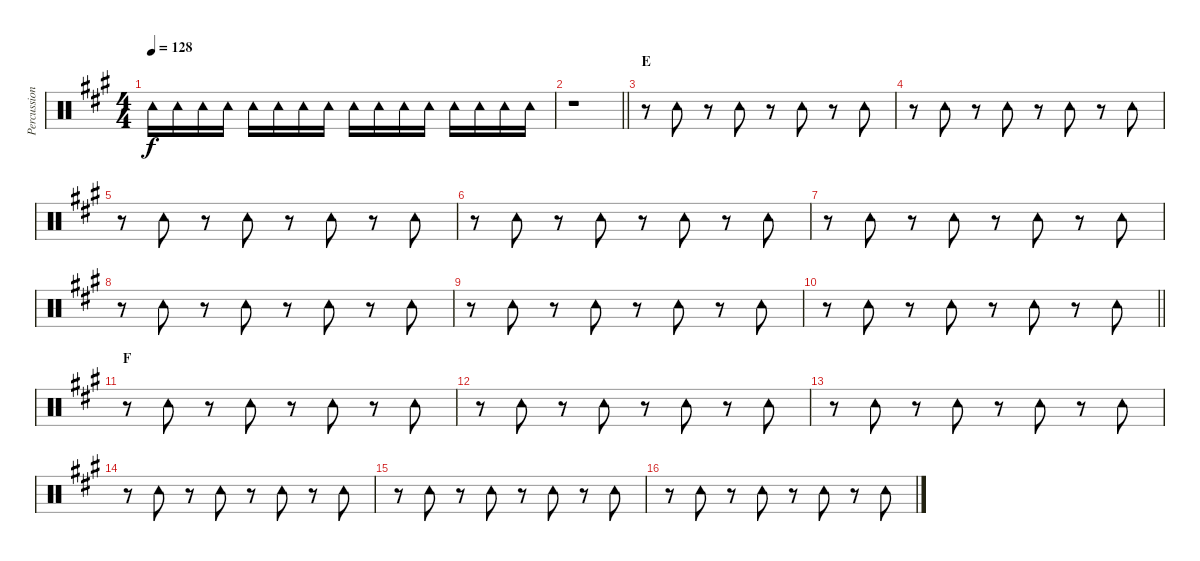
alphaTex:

\track ("Percussion" "Percussion") {instrument percussion}
\staff {score}
\articulation defaults
\ts (4 4)
\tempo 128
\clef neutral
\ks a "Tambourine (hit)".16{dy f} "Tambourine (hit)".16 "Tambourine (hit)".16 "Tambourine (hit)".16 "Tambourine (hit)".16 "Tambourine (hit)".16 "Tambourine (hit)".16 "Tambourine (hit)".16 "Tambourine (hit)".16 "Tambourine (hit)".16 "Tambourine (hit)".16 "Tambourine (hit)".16 "Tambourine (hit)".16 "Tambourine (hit)".16 "Tambourine (hit)".16 "Tambourine (hit)".16
|
\barLineRight lightlight
r.1 |
\section ("" "E")
r.8 "Tambourine (hit)".8 r.8 "Tambourine (hit)".8 r.8 "Tambourine (hit)".8 r.8 "Tambourine (hit)".8 |
r.8 "Tambourine (hit)".8 r.8 "Tambourine (hit)".8 r.8 "Tambourine (hit)".8 r.8 "Tambourine (hit)".8 |
r.8 "Tambourine (hit)".8 r.8 "Tambourine (hit)".8 r.8 "Tambourine (hit)".8 r.8 "Tambourine (hit)".8 |
r.8 "Tambourine (hit)".8 r.8 "Tambourine (hit)".8 r.8 "Tambourine (hit)".8 r.8 "Tambourine (hit)".8 |
r.8 "Tambourine (hit)".8 r.8 "Tambourine (hit)".8 r.8 "Tambourine (hit)".8 r.8 "Tambourine (hit)".8 |
r.8 "Tambourine (hit)".8 r.8 "Tambourine (hit)".8 r.8 "Tambourine (hit)".8 r.8 "Tambourine (hit)".8 |
r.8 "Tambourine (hit)".8 r.8 "Tambourine (hit)".8 r.8 "Tambourine (hit)".8 r.8 "Tambourine (hit)".8 |
\barLineRight lightlight
r.8 "Tambourine (hit)".8 r.8 "Tambourine (hit)".8 r.8 "Tambourine (hit)".8 r.8 "Tambourine (hit)".8 |
\section ("" "F")
r.8 "Tambourine (hit)".8 r.8 "Tambourine (hit)".8 r.8 "Tambourine (hit)".8 r.8 "Tambourine (hit)".8 |
r.8 "Tambourine (hit)".8 r.8 "Tambourine (hit)".8 r.8 "Tambourine (hit)".8 r.8 "Tambourine (hit)".8 |
r.8 "Tambourine (hit)".8 r.8 "Tambourine (hit)".8 r.8 "Tambourine (hit)".8 r.8 "Tambourine (hit)".8 |
r.8 "Tambourine (hit)".8 r.8 "Tambourine (hit)".8 r.8 "Tambourine (hit)".8 r.8 "Tambourine (hit)".8 |
r.8 "Tambourine (hit)".8 r.8 "Tambourine (hit)".8 r.8 "Tambourine (hit)".8 r.8 "Tambourine (hit)".8 |
r.8 "Tambourine (hit)".8 r.8 "Tambourine (hit)".8 r.8 "Tambourine (hit)".8 r.8 "Tambourine (hit)".8
